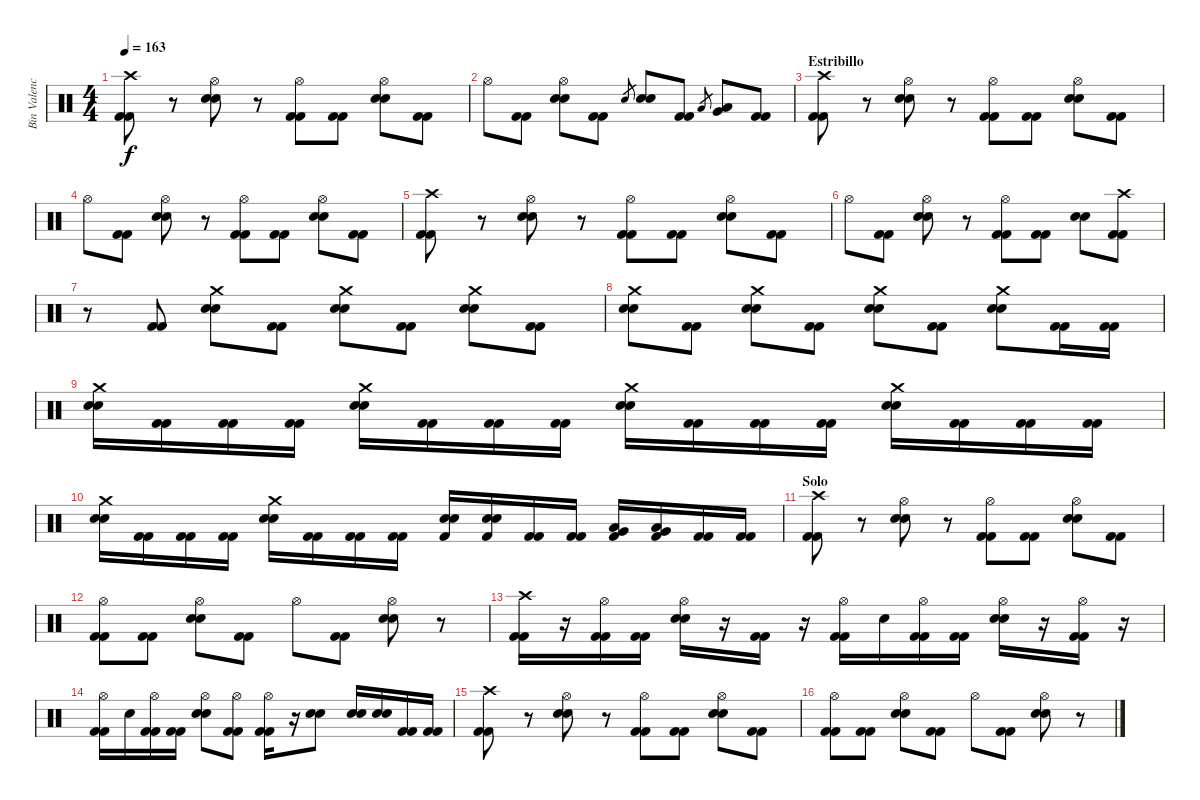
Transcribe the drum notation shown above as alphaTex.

\track ("Bin Valencia" "Bin Valenc") {instrument percussion}
\staff {score}
\articulation defaults
\ts (4 4)
\tempo 163
\clef neutral
\ks c
("Crash high (hit)" "Kick (hit) 2" "Kick (hit) 2").8{dy f} r.8 ("Hi-Hat (open)" "Snare (hit) 2" "Snare (hit) 2").8 r.8 ("Hi-Hat (open)" "Kick (hit) 2" "Kick (hit) 2").8 ("Kick (hit) 2" "Kick (hit) 2").8 ("Hi-Hat (open)" "Snare (hit) 2" "Snare (hit) 2").8 ("Kick (hit) 2" "Kick (hit) 2").8 |
"Hi-Hat (open)".8 ("Kick (hit) 2" "Kick (hit) 2").8 ("Hi-Hat (open)" "Snare (hit) 2" "Snare (hit) 2").8 ("Kick (hit) 2" "Kick (hit) 2").8 "Snare (hit) 2".8{gr} ("Snare (hit) 2" "Snare (hit) 2").8 ("Kick (hit) 2" "Kick (hit) 2").8 "Low Tom (hit)".8{gr} ("Very Low Tom (hit)" "Low Tom (hit)").8 ("Kick (hit) 2" "Kick (hit) 2").8 |
\section ("" "Estribillo")
("Crash high (hit)" "Kick (hit) 2" "Kick (hit) 2").8 r.8 ("Hi-Hat (open)" "Snare (hit) 2" "Snare (hit) 2").8 r.8 ("Hi-Hat (open)" "Kick (hit) 2" "Kick (hit) 2").8 ("Kick (hit) 2" "Kick (hit) 2").8 ("Hi-Hat (open)" "Snare (hit) 2" "Snare (hit) 2").8 ("Kick (hit) 2" "Kick (hit) 2").8 |
"Hi-Hat (open)".8 ("Kick (hit) 2" "Kick (hit) 2").8 ("Hi-Hat (open)" "Snare (hit) 2" "Snare (hit) 2").8 r.8 ("Hi-Hat (open)" "Kick (hit) 2" "Kick (hit) 2").8 ("Kick (hit) 2" "Kick (hit) 2").8 ("Hi-Hat (open)" "Snare (hit) 2" "Snare (hit) 2").8 ("Kick (hit) 2" "Kick (hit) 2").8 |
("Crash high (hit)" "Kick (hit) 2" "Kick (hit) 2").8 r.8 ("Hi-Hat (open)" "Snare (hit) 2" "Snare (hit) 2").8 r.8 ("Hi-Hat (open)" "Kick (hit) 2" "Kick (hit) 2").8 ("Kick (hit) 2" "Kick (hit) 2").8 ("Hi-Hat (open)" "Snare (hit) 2" "Snare (hit) 2").8 ("Kick (hit) 2" "Kick (hit) 2").8 |
"Hi-Hat (open)".8 ("Kick (hit) 2" "Kick (hit) 2").8 ("Hi-Hat (open)" "Snare (hit) 2" "Snare (hit) 2").8 r.8 ("Hi-Hat (open)" "Kick (hit) 2" "Kick (hit) 2").8 ("Kick (hit) 2" "Kick (hit) 2").8 ("Snare (hit) 2" "Snare (hit) 2").8 ("Crash high (hit)" "Kick (hit) 2" "Kick (hit) 2").8 |
r.8 ("Kick (hit) 2" "Kick (hit) 2").8 ("Crash medium (hit)" "Snare (hit) 2" "Snare (hit) 2").8 ("Kick (hit) 2" "Kick (hit) 2").8 ("Crash medium (hit)" "Snare (hit) 2" "Snare (hit) 2").8 ("Kick (hit) 2" "Kick (hit) 2").8 ("Crash medium (hit)" "Snare (hit) 2" "Snare (hit) 2").8 ("Kick (hit) 2" "Kick (hit) 2").8 |
("Crash medium (hit)" "Snare (hit) 2" "Snare (hit) 2").8 ("Kick (hit) 2" "Kick (hit) 2").8 ("Crash medium (hit)" "Snare (hit) 2" "Snare (hit) 2").8 ("Kick (hit) 2" "Kick (hit) 2").8 ("Crash medium (hit)" "Snare (hit) 2" "Snare (hit) 2").8 ("Kick (hit) 2" "Kick (hit) 2").8 ("Crash medium (hit)" "Snare (hit) 2" "Snare (hit) 2").8 ("Kick (hit) 2" "Kick (hit) 2").16 ("Kick (hit) 2" "Kick (hit) 2").16 |
("Crash medium (hit)" "Snare (hit) 2" "Snare (hit) 2").16 ("Kick (hit) 2" "Kick (hit) 2").16 ("Kick (hit) 2" "Kick (hit) 2").16 ("Kick (hit) 2" "Kick (hit) 2").16 ("Crash medium (hit)" "Snare (hit) 2" "Snare (hit) 2").16 ("Kick (hit) 2" "Kick (hit) 2").16 ("Kick (hit) 2" "Kick (hit) 2").16 ("Kick (hit) 2" "Kick (hit) 2").16 ("Crash medium (hit)" "Snare (hit) 2" "Snare (hit) 2").16 ("Kick (hit) 2" "Kick (hit) 2").16 ("Kick (hit) 2" "Kick (hit) 2").16 ("Kick (hit) 2" "Kick (hit) 2").16 ("Crash medium (hit)" "Snare (hit) 2" "Snare (hit) 2").16 ("Kick (hit) 2" "Kick (hit) 2").16 ("Kick (hit) 2" "Kick (hit) 2").16 ("Kick (hit) 2" "Kick (hit) 2").16 |
("Crash medium (hit)" "Snare (hit) 2" "Snare (hit) 2").16 ("Kick (hit) 2" "Kick (hit) 2").16 ("Kick (hit) 2" "Kick (hit) 2").16 ("Kick (hit) 2" "Kick (hit) 2").16 ("Crash medium (hit)" "Snare (hit) 2" "Snare (hit) 2").16 ("Kick (hit) 2" "Kick (hit) 2").16 ("Kick (hit) 2" "Kick (hit) 2").16 ("Kick (hit) 2" "Kick (hit) 2").16 ("Snare (hit) 2" "Snare (hit) 2" "Kick (hit) 2").16 ("Snare (hit) 2" "Snare (hit) 2" "Kick (hit) 2").16 ("Kick (hit) 2" "Kick (hit) 2").16 ("Kick (hit) 2" "Kick (hit) 2").16 ("Very Low Tom (hit)" "Low Tom (hit)" "Kick (hit) 2").16 ("Very Low Tom (hit)" "Low Tom (hit)" "Kick (hit) 2").16 ("Kick (hit) 2" "Kick (hit) 2").16 ("Kick (hit) 2" "Kick (hit) 2").16 |
\section ("" "Solo")
("Crash high (hit)" "Kick (hit) 2" "Kick (hit) 2").8 r.8 ("Hi-Hat (open)" "Snare (hit) 2" "Snare (hit) 2").8 r.8 ("Hi-Hat (open)" "Kick (hit) 2" "Kick (hit) 2").8 ("Kick (hit) 2" "Kick (hit) 2").8 ("Hi-Hat (open)" "Snare (hit) 2" "Snare (hit) 2").8 ("Kick (hit) 2" "Kick (hit) 2").8 |
("Hi-Hat (open)" "Kick (hit) 2" "Kick (hit) 2").8 ("Kick (hit) 2" "Kick (hit) 2").8 ("Hi-Hat (open)" "Snare (hit) 2" "Snare (hit) 2").8 ("Kick (hit) 2" "Kick (hit) 2").8 "Hi-Hat (open)".8 ("Kick (hit) 2" "Kick (hit) 2").8 ("Hi-Hat (open)" "Snare (hit) 2" "Snare (hit) 2").8 r.8 |
("Crash high (hit)" "Kick (hit) 2" "Kick (hit) 2").16 r.16 ("Hi-Hat (open)" "Kick (hit) 2" "Kick (hit) 2").16 ("Kick (hit) 2" "Kick (hit) 2").16 ("Hi-Hat (open)" "Snare (hit) 2" "Snare (hit) 2").16 r.16 ("Kick (hit) 2" "Kick (hit) 2").16 r.16 ("Hi-Hat (open)" "Kick (hit) 2" "Kick (hit) 2").16 "Snare (hit) 2".16 ("Hi-Hat (open)" "Kick (hit) 2" "Kick (hit) 2").16 ("Kick (hit) 2" "Kick (hit) 2").16 ("Hi-Hat (open)" "Snare (hit) 2" "Snare (hit) 2").16 r.16 ("Hi-Hat (open)" "Kick (hit) 2" "Kick (hit) 2").16 r.16 |
("Hi-Hat (open)" "Kick (hit) 2" "Kick (hit) 2").16 "Snare (hit) 2".16 ("Hi-Hat (open)" "Kick (hit) 2" "Kick (hit) 2").16 ("Kick (hit) 2" "Kick (hit) 2").16 ("Hi-Hat (open)" "Snare (hit) 2" "Snare (hit) 2").8 ("Hi-Hat (open)" "Kick (hit) 2" "Kick (hit) 2").8 ("Hi-Hat (open)" "Kick (hit) 2" "Kick (hit) 2").16 r.16 ("Snare (hit) 2" "Snare (hit) 2").8 ("Snare (hit) 2" "Snare (hit) 2").16 ("Snare (hit) 2" "Snare (hit) 2").16 ("Kick (hit) 2" "Kick (hit) 2").16 ("Kick (hit) 2" "Kick (hit) 2").16 |
("Crash high (hit)" "Kick (hit) 2" "Kick (hit) 2").8 r.8 ("Hi-Hat (open)" "Snare (hit) 2" "Snare (hit) 2").8 r.8 ("Hi-Hat (open)" "Kick (hit) 2" "Kick (hit) 2").8 ("Kick (hit) 2" "Kick (hit) 2").8 ("Hi-Hat (open)" "Snare (hit) 2" "Snare (hit) 2").8 ("Kick (hit) 2" "Kick (hit) 2").8 |
("Hi-Hat (open)" "Kick (hit) 2" "Kick (hit) 2").8 ("Kick (hit) 2" "Kick (hit) 2").8 ("Hi-Hat (open)" "Snare (hit) 2" "Snare (hit) 2").8 ("Kick (hit) 2" "Kick (hit) 2").8 "Hi-Hat (open)".8 ("Kick (hit) 2" "Kick (hit) 2").8 ("Hi-Hat (open)" "Snare (hit) 2" "Snare (hit) 2").8 r.8
